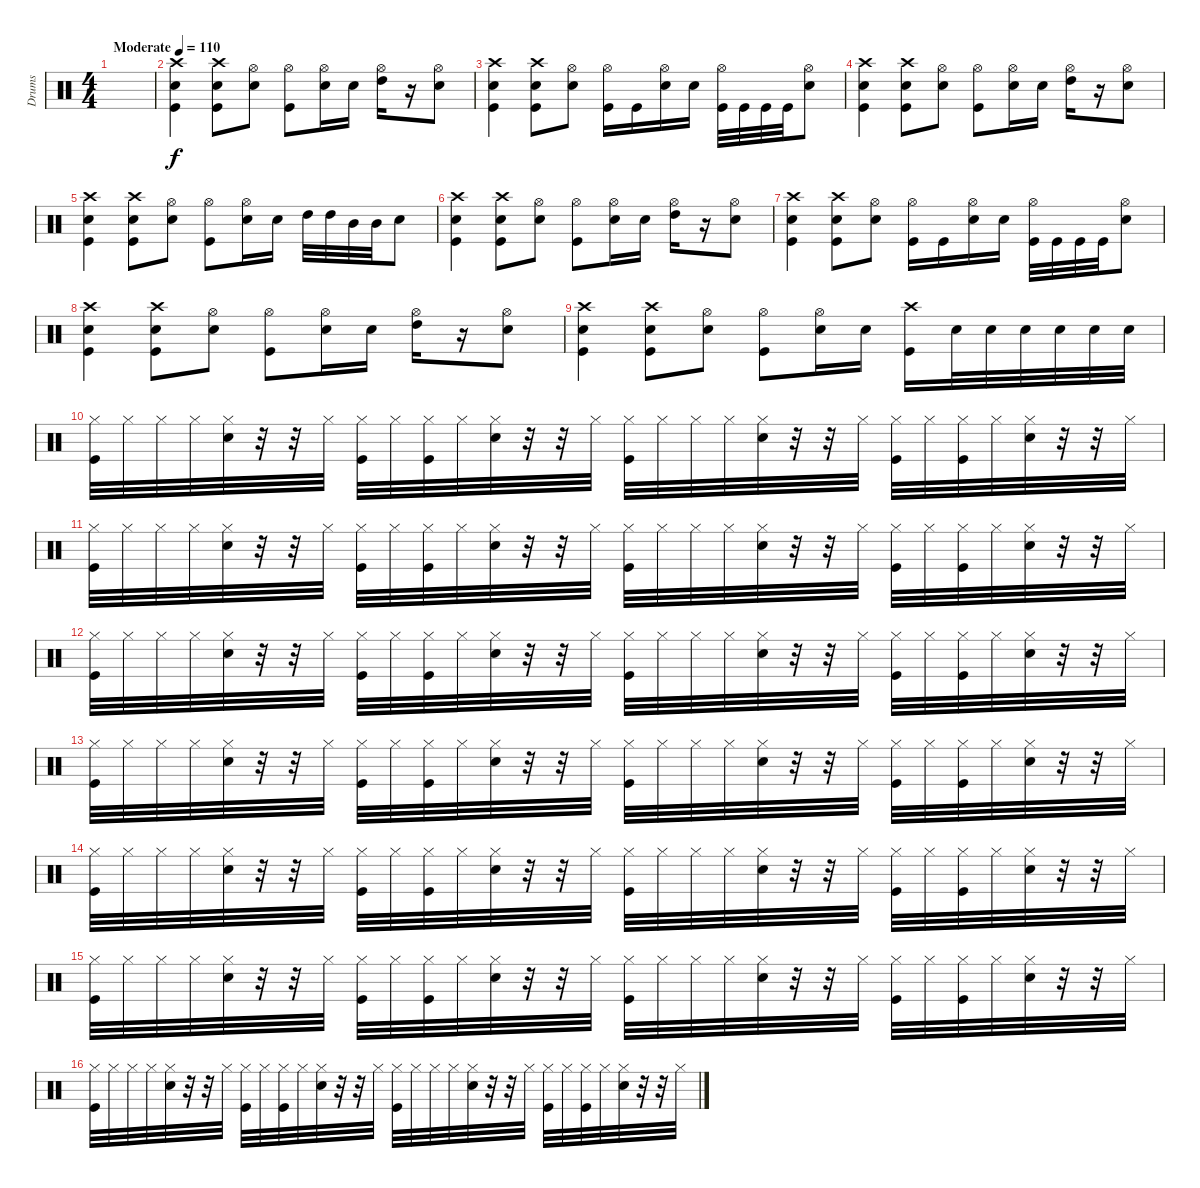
\track ("Drums" "Drums") {instrument percussion}
\staff {score}
\articulation defaults
\ts (4 4)
\tempo (110 "Moderate")
\clef neutral
\ks c
|
("Crash high (hit)" "Snare (hit) 2" "Kick (hit)").4 ("Crash high (hit)" "Snare (hit) 2" "Kick (hit)").8 ("Hi-Hat (open)" "Snare (hit) 2").8 ("Hi-Hat (open)" "Kick (hit)").8 ("Hi-Hat (open)" "Snare (hit) 2").16 "Snare (hit) 2".16 ("Hi-Hat (open)" "High Tom (hit)").16 r.16 ("Hi-Hat (open)" "Snare (hit) 2").8 |
("Crash high (hit)" "Snare (hit) 2" "Kick (hit)").4 ("Crash high (hit)" "Snare (hit) 2" "Kick (hit)").8 ("Hi-Hat (open)" "Snare (hit) 2").8 ("Hi-Hat (open)" "Kick (hit)").16 "Kick (hit)".16 ("Hi-Hat (open)" "Snare (hit) 2").16 "Snare (hit) 2".16 ("Hi-Hat (open)" "Kick (hit)").32 "Kick (hit)".32 "Kick (hit)".32 "Kick (hit)".32 ("Hi-Hat (open)" "Snare (hit) 2").8 |
("Crash high (hit)" "Snare (hit) 2" "Kick (hit)").4 ("Crash high (hit)" "Snare (hit) 2" "Kick (hit)").8 ("Hi-Hat (open)" "Snare (hit) 2").8 ("Hi-Hat (open)" "Kick (hit)").8 ("Hi-Hat (open)" "Snare (hit) 2").16 "Snare (hit) 2".16 ("Hi-Hat (open)" "High Tom (hit)").16 r.16 ("Hi-Hat (open)" "Snare (hit) 2").8 |
("Crash high (hit)" "Snare (hit) 2" "Kick (hit)").4 ("Crash high (hit)" "Snare (hit) 2" "Kick (hit)").8 ("Hi-Hat (open)" "Snare (hit) 2").8 ("Hi-Hat (open)" "Kick (hit)").8 ("Hi-Hat (open)" "Snare (hit) 2").16 "Snare (hit) 2".16 "High Tom (hit)".32 "High Tom (hit)".32 "Mid Tom (hit)".32 "Mid Tom (hit)".32 "Snare (hit) 2".8 |
("Crash high (hit)" "Snare (hit) 2" "Kick (hit)").4 ("Crash high (hit)" "Snare (hit) 2" "Kick (hit)").8 ("Hi-Hat (open)" "Snare (hit) 2").8 ("Hi-Hat (open)" "Kick (hit)").8 ("Hi-Hat (open)" "Snare (hit) 2").16 "Snare (hit) 2".16 ("Hi-Hat (open)" "High Tom (hit)").16 r.16 ("Hi-Hat (open)" "Snare (hit) 2").8 |
("Crash high (hit)" "Snare (hit) 2" "Kick (hit)").4 ("Crash high (hit)" "Snare (hit) 2" "Kick (hit)").8 ("Hi-Hat (open)" "Snare (hit) 2").8 ("Hi-Hat (open)" "Kick (hit)").16 "Kick (hit)".16 ("Hi-Hat (open)" "Snare (hit) 2").16 "Snare (hit) 2".16 ("Hi-Hat (open)" "Kick (hit)").32 "Kick (hit)".32 "Kick (hit)".32 "Kick (hit)".32 ("Hi-Hat (open)" "Snare (hit) 2").8 |
("Crash high (hit)" "Snare (hit) 2" "Kick (hit)").4 ("Crash high (hit)" "Snare (hit) 2" "Kick (hit)").8 ("Hi-Hat (open)" "Snare (hit) 2").8 ("Hi-Hat (open)" "Kick (hit)").8 ("Hi-Hat (open)" "Snare (hit) 2").16 "Snare (hit) 2".16 ("Hi-Hat (open)" "High Tom (hit)").16 r.16 ("Hi-Hat (open)" "Snare (hit) 2").8 |
("Crash high (hit)" "Snare (hit) 2" "Kick (hit)").4 ("Crash high (hit)" "Snare (hit) 2" "Kick (hit)").8 ("Hi-Hat (open)" "Snare (hit) 2").8 ("Hi-Hat (open)" "Kick (hit)").8 ("Hi-Hat (open)" "Snare (hit) 2").16 "Snare (hit) 2".16 ("Crash high (hit)" "Kick (hit)").16 "Snare (hit) 2".32 "Snare (hit) 2".32 "Snare (hit) 2".32 "Snare (hit) 2".32 "Snare (hit) 2".32 "Snare (hit) 2".32 |
("Hi-Hat (closed)" "Kick (hit)").32 "Hi-Hat (closed)".32 "Hi-Hat (closed)".32 "Hi-Hat (closed)".32 ("Hi-Hat (closed)" "Snare (hit) 2").32 r.32 r.32 "Hi-Hat (closed)".32 ("Hi-Hat (closed)" "Kick (hit)").32 "Hi-Hat (closed)".32 ("Hi-Hat (closed)" "Kick (hit)").32 "Hi-Hat (closed)".32 ("Hi-Hat (closed)" "Snare (hit) 2").32 r.32 r.32 "Hi-Hat (closed)".32 ("Hi-Hat (closed)" "Kick (hit)").32 "Hi-Hat (closed)".32 "Hi-Hat (closed)".32 "Hi-Hat (closed)".32 ("Hi-Hat (closed)" "Snare (hit) 2").32 r.32 r.32 "Hi-Hat (closed)".32 ("Hi-Hat (closed)" "Kick (hit)").32 "Hi-Hat (closed)".32 ("Hi-Hat (closed)" "Kick (hit)").32 "Hi-Hat (closed)".32 ("Hi-Hat (closed)" "Snare (hit) 2").32 r.32 r.32 "Hi-Hat (closed)".32 |
("Hi-Hat (closed)" "Kick (hit)").32 "Hi-Hat (closed)".32 "Hi-Hat (closed)".32 "Hi-Hat (closed)".32 ("Hi-Hat (closed)" "Snare (hit) 2").32 r.32 r.32 "Hi-Hat (closed)".32 ("Hi-Hat (closed)" "Kick (hit)").32 "Hi-Hat (closed)".32 ("Hi-Hat (closed)" "Kick (hit)").32 "Hi-Hat (closed)".32 ("Hi-Hat (closed)" "Snare (hit) 2").32 r.32 r.32 "Hi-Hat (closed)".32 ("Hi-Hat (closed)" "Kick (hit)").32 "Hi-Hat (closed)".32 "Hi-Hat (closed)".32 "Hi-Hat (closed)".32 ("Hi-Hat (closed)" "Snare (hit) 2").32 r.32 r.32 "Hi-Hat (closed)".32 ("Hi-Hat (closed)" "Kick (hit)").32 "Hi-Hat (closed)".32 ("Hi-Hat (closed)" "Kick (hit)").32 "Hi-Hat (closed)".32 ("Hi-Hat (closed)" "Snare (hit) 2").32 r.32 r.32 "Hi-Hat (closed)".32 |
("Hi-Hat (closed)" "Kick (hit)").32 "Hi-Hat (closed)".32 "Hi-Hat (closed)".32 "Hi-Hat (closed)".32 ("Hi-Hat (closed)" "Snare (hit) 2").32 r.32 r.32 "Hi-Hat (closed)".32 ("Hi-Hat (closed)" "Kick (hit)").32 "Hi-Hat (closed)".32 ("Hi-Hat (closed)" "Kick (hit)").32 "Hi-Hat (closed)".32 ("Hi-Hat (closed)" "Snare (hit) 2").32 r.32 r.32 "Hi-Hat (closed)".32 ("Hi-Hat (closed)" "Kick (hit)").32 "Hi-Hat (closed)".32 "Hi-Hat (closed)".32 "Hi-Hat (closed)".32 ("Hi-Hat (closed)" "Snare (hit) 2").32 r.32 r.32 "Hi-Hat (closed)".32 ("Hi-Hat (closed)" "Kick (hit)").32 "Hi-Hat (closed)".32 ("Hi-Hat (closed)" "Kick (hit)").32 "Hi-Hat (closed)".32 ("Hi-Hat (closed)" "Snare (hit) 2").32 r.32 r.32 "Hi-Hat (closed)".32 |
("Hi-Hat (closed)" "Kick (hit)").32 "Hi-Hat (closed)".32 "Hi-Hat (closed)".32 "Hi-Hat (closed)".32 ("Hi-Hat (closed)" "Snare (hit) 2").32 r.32 r.32 "Hi-Hat (closed)".32 ("Hi-Hat (closed)" "Kick (hit)").32 "Hi-Hat (closed)".32 ("Hi-Hat (closed)" "Kick (hit)").32 "Hi-Hat (closed)".32 ("Hi-Hat (closed)" "Snare (hit) 2").32 r.32 r.32 "Hi-Hat (closed)".32 ("Hi-Hat (closed)" "Kick (hit)").32 "Hi-Hat (closed)".32 "Hi-Hat (closed)".32 "Hi-Hat (closed)".32 ("Hi-Hat (closed)" "Snare (hit) 2").32 r.32 r.32 "Hi-Hat (closed)".32 ("Hi-Hat (closed)" "Kick (hit)").32 "Hi-Hat (closed)".32 ("Hi-Hat (closed)" "Kick (hit)").32 "Hi-Hat (closed)".32 ("Hi-Hat (closed)" "Snare (hit) 2").32 r.32 r.32 "Hi-Hat (closed)".32 |
("Hi-Hat (closed)" "Kick (hit)").32 "Hi-Hat (closed)".32 "Hi-Hat (closed)".32 "Hi-Hat (closed)".32 ("Hi-Hat (closed)" "Snare (hit) 2").32 r.32 r.32 "Hi-Hat (closed)".32 ("Hi-Hat (closed)" "Kick (hit)").32 "Hi-Hat (closed)".32 ("Hi-Hat (closed)" "Kick (hit)").32 "Hi-Hat (closed)".32 ("Hi-Hat (closed)" "Snare (hit) 2").32 r.32 r.32 "Hi-Hat (closed)".32 ("Hi-Hat (closed)" "Kick (hit)").32 "Hi-Hat (closed)".32 "Hi-Hat (closed)".32 "Hi-Hat (closed)".32 ("Hi-Hat (closed)" "Snare (hit) 2").32 r.32 r.32 "Hi-Hat (closed)".32 ("Hi-Hat (closed)" "Kick (hit)").32 "Hi-Hat (closed)".32 ("Hi-Hat (closed)" "Kick (hit)").32 "Hi-Hat (closed)".32 ("Hi-Hat (closed)" "Snare (hit) 2").32 r.32 r.32 "Hi-Hat (closed)".32 |
("Hi-Hat (closed)" "Kick (hit)").32 "Hi-Hat (closed)".32 "Hi-Hat (closed)".32 "Hi-Hat (closed)".32 ("Hi-Hat (closed)" "Snare (hit) 2").32 r.32 r.32 "Hi-Hat (closed)".32 ("Hi-Hat (closed)" "Kick (hit)").32 "Hi-Hat (closed)".32 ("Hi-Hat (closed)" "Kick (hit)").32 "Hi-Hat (closed)".32 ("Hi-Hat (closed)" "Snare (hit) 2").32 r.32 r.32 "Hi-Hat (closed)".32 ("Hi-Hat (closed)" "Kick (hit)").32 "Hi-Hat (closed)".32 "Hi-Hat (closed)".32 "Hi-Hat (closed)".32 ("Hi-Hat (closed)" "Snare (hit) 2").32 r.32 r.32 "Hi-Hat (closed)".32 ("Hi-Hat (closed)" "Kick (hit)").32 "Hi-Hat (closed)".32 ("Hi-Hat (closed)" "Kick (hit)").32 "Hi-Hat (closed)".32 ("Hi-Hat (closed)" "Snare (hit) 2").32 r.32 r.32 "Hi-Hat (closed)".32 |
("Hi-Hat (closed)" "Kick (hit)").32 "Hi-Hat (closed)".32 "Hi-Hat (closed)".32 "Hi-Hat (closed)".32 ("Hi-Hat (closed)" "Snare (hit) 2").32 r.32 r.32 "Hi-Hat (closed)".32 ("Hi-Hat (closed)" "Kick (hit)").32 "Hi-Hat (closed)".32 ("Hi-Hat (closed)" "Kick (hit)").32 "Hi-Hat (closed)".32 ("Hi-Hat (closed)" "Snare (hit) 2").32 r.32 r.32 "Hi-Hat (closed)".32 ("Hi-Hat (closed)" "Kick (hit)").32 "Hi-Hat (closed)".32 "Hi-Hat (closed)".32 "Hi-Hat (closed)".32 ("Hi-Hat (closed)" "Snare (hit) 2").32 r.32 r.32 "Hi-Hat (closed)".32 ("Hi-Hat (closed)" "Kick (hit)").32 "Hi-Hat (closed)".32 ("Hi-Hat (closed)" "Kick (hit)").32 "Hi-Hat (closed)".32 ("Hi-Hat (closed)" "Snare (hit) 2").32 r.32 r.32 "Hi-Hat (closed)".32
